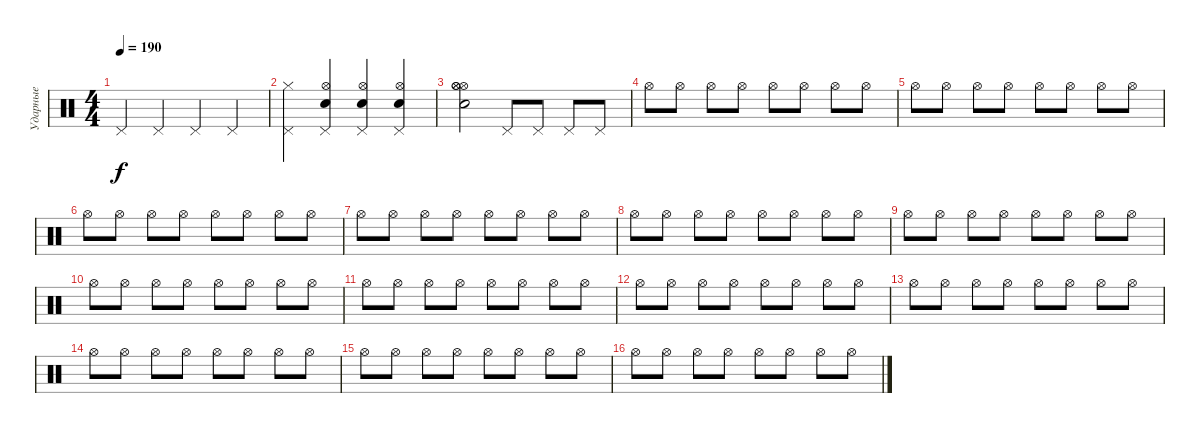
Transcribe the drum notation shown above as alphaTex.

\track ("Ударные" "Ударные") {instrument percussion}
\staff {score}
\articulation defaults
\ts (4 4)
\tempo 190
\clef neutral
\ks c "Pedal Hi-Hat (hit)".4{dy f} "Pedal Hi-Hat (hit)".4 "Pedal Hi-Hat (hit)".4 "Pedal Hi-Hat (hit)".4
|
("Pedal Hi-Hat (hit)" "Hi-Hat (closed)").4 ("Pedal Hi-Hat (hit)" "Hi-Hat (open)" "Electric Snare (hit)").4 ("Pedal Hi-Hat (hit)" "Hi-Hat (open)" "Electric Snare (hit)").4 ("Pedal Hi-Hat (hit)" "Hi-Hat (open)" "Electric Snare (hit)").4 |
("Hi-Hat (open)" "Hi-Hat (open)" "Hi-Hat (open)" "Electric Snare (hit)").2 "Pedal Hi-Hat (hit)".8 "Pedal Hi-Hat (hit)".8 "Pedal Hi-Hat (hit)".8 "Pedal Hi-Hat (hit)".8 |
"Hi-Hat (open)".8 "Hi-Hat (open)".8 "Hi-Hat (open)".8 "Hi-Hat (open)".8 "Hi-Hat (open)".8 "Hi-Hat (open)".8 "Hi-Hat (open)".8 "Hi-Hat (open)".8 |
"Hi-Hat (open)".8 "Hi-Hat (open)".8 "Hi-Hat (open)".8 "Hi-Hat (open)".8 "Hi-Hat (open)".8 "Hi-Hat (open)".8 "Hi-Hat (open)".8 "Hi-Hat (open)".8 |
"Hi-Hat (open)".8 "Hi-Hat (open)".8 "Hi-Hat (open)".8 "Hi-Hat (open)".8 "Hi-Hat (open)".8 "Hi-Hat (open)".8 "Hi-Hat (open)".8 "Hi-Hat (open)".8 |
"Hi-Hat (open)".8 "Hi-Hat (open)".8 "Hi-Hat (open)".8 "Hi-Hat (open)".8 "Hi-Hat (open)".8 "Hi-Hat (open)".8 "Hi-Hat (open)".8 "Hi-Hat (open)".8 |
"Hi-Hat (open)".8 "Hi-Hat (open)".8 "Hi-Hat (open)".8 "Hi-Hat (open)".8 "Hi-Hat (open)".8 "Hi-Hat (open)".8 "Hi-Hat (open)".8 "Hi-Hat (open)".8 |
"Hi-Hat (open)".8 "Hi-Hat (open)".8 "Hi-Hat (open)".8 "Hi-Hat (open)".8 "Hi-Hat (open)".8 "Hi-Hat (open)".8 "Hi-Hat (open)".8 "Hi-Hat (open)".8 |
"Hi-Hat (open)".8 "Hi-Hat (open)".8 "Hi-Hat (open)".8 "Hi-Hat (open)".8 "Hi-Hat (open)".8 "Hi-Hat (open)".8 "Hi-Hat (open)".8 "Hi-Hat (open)".8 |
"Hi-Hat (open)".8 "Hi-Hat (open)".8 "Hi-Hat (open)".8 "Hi-Hat (open)".8 "Hi-Hat (open)".8 "Hi-Hat (open)".8 "Hi-Hat (open)".8 "Hi-Hat (open)".8 |
"Hi-Hat (open)".8 "Hi-Hat (open)".8 "Hi-Hat (open)".8 "Hi-Hat (open)".8 "Hi-Hat (open)".8 "Hi-Hat (open)".8 "Hi-Hat (open)".8 "Hi-Hat (open)".8 |
"Hi-Hat (open)".8 "Hi-Hat (open)".8 "Hi-Hat (open)".8 "Hi-Hat (open)".8 "Hi-Hat (open)".8 "Hi-Hat (open)".8 "Hi-Hat (open)".8 "Hi-Hat (open)".8 |
"Hi-Hat (open)".8 "Hi-Hat (open)".8 "Hi-Hat (open)".8 "Hi-Hat (open)".8 "Hi-Hat (open)".8 "Hi-Hat (open)".8 "Hi-Hat (open)".8 "Hi-Hat (open)".8 |
"Hi-Hat (open)".8 "Hi-Hat (open)".8 "Hi-Hat (open)".8 "Hi-Hat (open)".8 "Hi-Hat (open)".8 "Hi-Hat (open)".8 "Hi-Hat (open)".8 "Hi-Hat (open)".8 |
"Hi-Hat (open)".8 "Hi-Hat (open)".8 "Hi-Hat (open)".8 "Hi-Hat (open)".8 "Hi-Hat (open)".8 "Hi-Hat (open)".8 "Hi-Hat (open)".8 "Hi-Hat (open)".8
